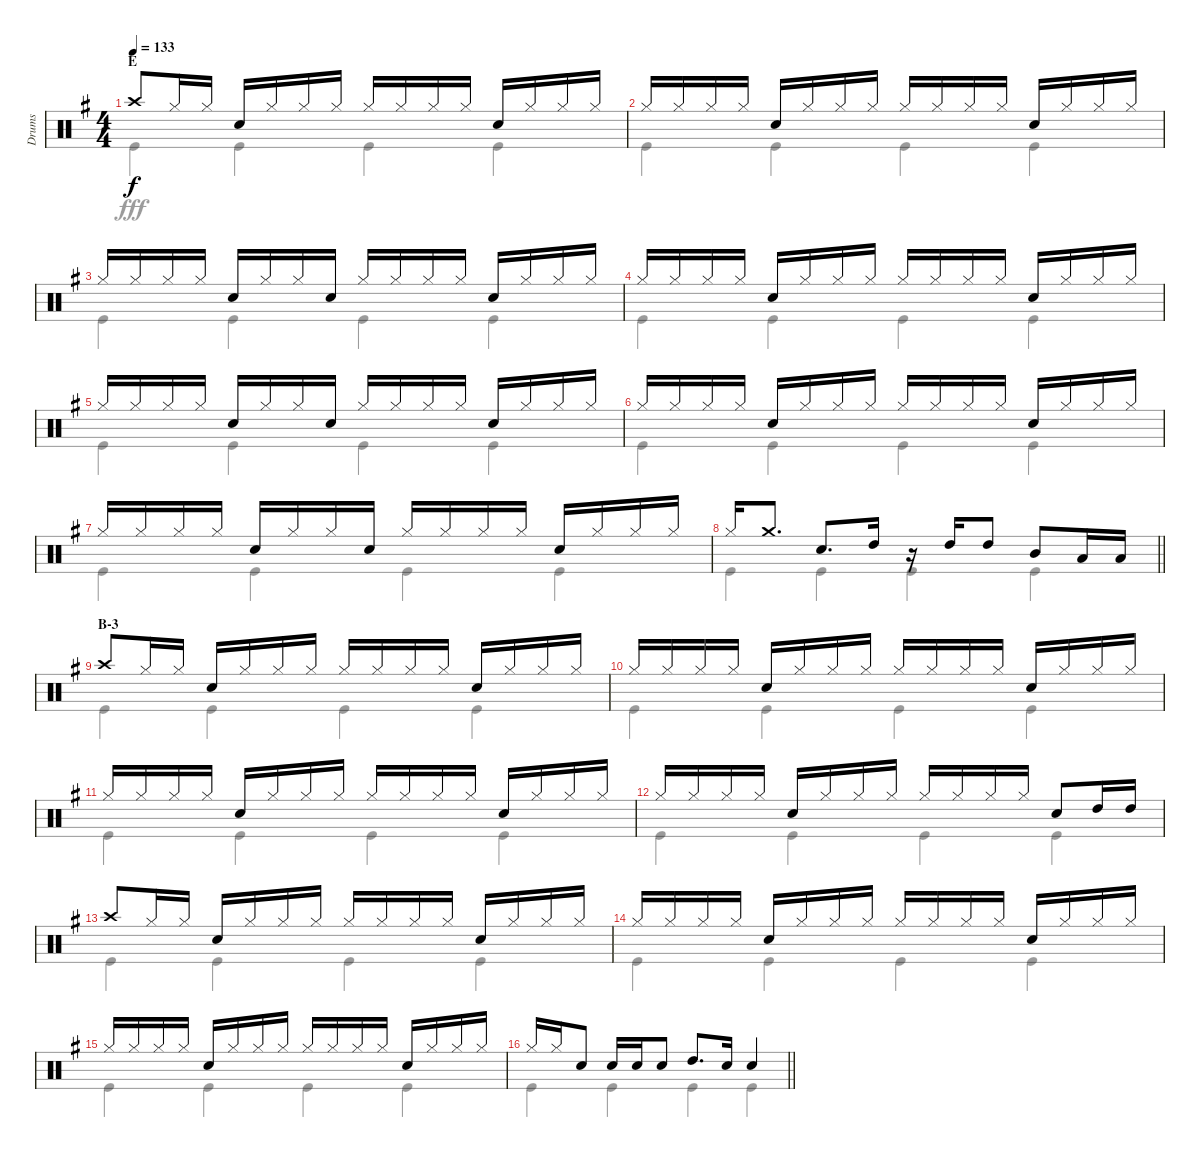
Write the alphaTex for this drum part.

\track ("Drums" "Drums") {instrument percussion}
\staff {score}
\articulation defaults
\voice
\ts (4 4)
\section ("" "E")
\tempo 133
\clef neutral
\ks g "Crash high (hit)".8{dy f} "Hi-Hat (closed)".16 "Hi-Hat (closed)".16 "Snare (hit) 2".16 "Hi-Hat (closed)".16 "Hi-Hat (closed)".16 "Hi-Hat (closed)".16 "Hi-Hat (closed)".16 "Hi-Hat (closed)".16 "Hi-Hat (closed)".16 "Hi-Hat (closed)".16 "Snare (hit) 2".16 "Hi-Hat (closed)".16 "Hi-Hat (closed)".16 "Hi-Hat (closed)".16
|
"Hi-Hat (closed)".16 "Hi-Hat (closed)".16 "Hi-Hat (closed)".16 "Hi-Hat (closed)".16 "Snare (hit) 2".16 "Hi-Hat (closed)".16 "Hi-Hat (closed)".16 "Hi-Hat (closed)".16 "Hi-Hat (closed)".16 "Hi-Hat (closed)".16 "Hi-Hat (closed)".16 "Hi-Hat (closed)".16 "Snare (hit) 2".16 "Hi-Hat (closed)".16 "Hi-Hat (closed)".16 "Hi-Hat (closed)".16 |
"Hi-Hat (closed)".16 "Hi-Hat (closed)".16 "Hi-Hat (closed)".16 "Hi-Hat (closed)".16 "Snare (hit) 2".16 "Hi-Hat (closed)".16 "Hi-Hat (closed)".16 "Snare (hit) 2".16 "Hi-Hat (closed)".16 "Hi-Hat (closed)".16 "Hi-Hat (closed)".16 "Hi-Hat (closed)".16 "Snare (hit) 2".16 "Hi-Hat (closed)".16 "Hi-Hat (closed)".16 "Hi-Hat (closed)".16 |
"Hi-Hat (closed)".16 "Hi-Hat (closed)".16 "Hi-Hat (closed)".16 "Hi-Hat (closed)".16 "Snare (hit) 2".16 "Hi-Hat (closed)".16 "Hi-Hat (closed)".16 "Hi-Hat (closed)".16 "Hi-Hat (closed)".16 "Hi-Hat (closed)".16 "Hi-Hat (closed)".16 "Hi-Hat (closed)".16 "Snare (hit) 2".16 "Hi-Hat (closed)".16 "Hi-Hat (closed)".16 "Hi-Hat (closed)".16 |
"Hi-Hat (closed)".16 "Hi-Hat (closed)".16 "Hi-Hat (closed)".16 "Hi-Hat (closed)".16 "Snare (hit) 2".16 "Hi-Hat (closed)".16 "Hi-Hat (closed)".16 "Snare (hit) 2".16 "Hi-Hat (closed)".16 "Hi-Hat (closed)".16 "Hi-Hat (closed)".16 "Hi-Hat (closed)".16 "Snare (hit) 2".16 "Hi-Hat (closed)".16 "Hi-Hat (closed)".16 "Hi-Hat (closed)".16 |
"Hi-Hat (closed)".16 "Hi-Hat (closed)".16 "Hi-Hat (closed)".16 "Hi-Hat (closed)".16 "Snare (hit) 2".16 "Hi-Hat (closed)".16 "Hi-Hat (closed)".16 "Hi-Hat (closed)".16 "Hi-Hat (closed)".16 "Hi-Hat (closed)".16 "Hi-Hat (closed)".16 "Hi-Hat (closed)".16 "Snare (hit) 2".16 "Hi-Hat (closed)".16 "Hi-Hat (closed)".16 "Hi-Hat (closed)".16 |
"Hi-Hat (closed)".16 "Hi-Hat (closed)".16 "Hi-Hat (closed)".16 "Hi-Hat (closed)".16 "Snare (hit) 2".16 "Hi-Hat (closed)".16 "Hi-Hat (closed)".16 "Snare (hit) 2".16 "Hi-Hat (closed)".16 "Hi-Hat (closed)".16 "Hi-Hat (closed)".16 "Hi-Hat (closed)".16 "Snare (hit) 2".16 "Hi-Hat (closed)".16 "Hi-Hat (closed)".16 "Hi-Hat (closed)".16 |
\barLineRight lightlight "Hi-Hat (closed)".16 "Crash medium (hit)".8{d} "Snare (hit) 2".8{d} "High Tom (hit)".16
r.16 "High Tom (hit)".16 "High Tom (hit)".8 "Mid Tom (hit)".8 "Low Tom (hit)".16 "Low Tom (hit)".16 |
\section ("" "B-3")
"Crash high (hit)".8 "Hi-Hat (closed)".16 "Hi-Hat (closed)".16 "Snare (hit) 2".16 "Hi-Hat (closed)".16 "Hi-Hat (closed)".16 "Hi-Hat (closed)".16 "Hi-Hat (closed)".16 "Hi-Hat (closed)".16 "Hi-Hat (closed)".16 "Hi-Hat (closed)".16 "Snare (hit) 2".16 "Hi-Hat (closed)".16 "Hi-Hat (closed)".16 "Hi-Hat (closed)".16 |
"Hi-Hat (closed)".16 "Hi-Hat (closed)".16 "Hi-Hat (closed)".16 "Hi-Hat (closed)".16 "Snare (hit) 2".16 "Hi-Hat (closed)".16 "Hi-Hat (closed)".16 "Hi-Hat (closed)".16 "Hi-Hat (closed)".16 "Hi-Hat (closed)".16 "Hi-Hat (closed)".16 "Hi-Hat (closed)".16 "Snare (hit) 2".16 "Hi-Hat (closed)".16 "Hi-Hat (closed)".16 "Hi-Hat (closed)".16 |
"Hi-Hat (closed)".16 "Hi-Hat (closed)".16 "Hi-Hat (closed)".16 "Hi-Hat (closed)".16 "Snare (hit) 2".16 "Hi-Hat (closed)".16 "Hi-Hat (closed)".16 "Hi-Hat (closed)".16 "Hi-Hat (closed)".16 "Hi-Hat (closed)".16 "Hi-Hat (closed)".16 "Hi-Hat (closed)".16 "Snare (hit) 2".16 "Hi-Hat (closed)".16 "Hi-Hat (closed)".16 "Hi-Hat (closed)".16 |
"Hi-Hat (closed)".16 "Hi-Hat (closed)".16 "Hi-Hat (closed)".16 "Hi-Hat (closed)".16 "Snare (hit) 2".16 "Hi-Hat (closed)".16 "Hi-Hat (closed)".16 "Hi-Hat (closed)".16 "Hi-Hat (closed)".16 "Hi-Hat (closed)".16 "Hi-Hat (closed)".16 "Hi-Hat (closed)".16 "Snare (hit) 2".8 "High Tom (hit)".16 "High Tom (hit)".16 |
"Crash high (hit)".8 "Hi-Hat (closed)".16 "Hi-Hat (closed)".16 "Snare (hit) 2".16 "Hi-Hat (closed)".16 "Hi-Hat (closed)".16 "Hi-Hat (closed)".16 "Hi-Hat (closed)".16 "Hi-Hat (closed)".16 "Hi-Hat (closed)".16 "Hi-Hat (closed)".16 "Snare (hit) 2".16 "Hi-Hat (closed)".16 "Hi-Hat (closed)".16 "Hi-Hat (closed)".16 |
"Hi-Hat (closed)".16 "Hi-Hat (closed)".16 "Hi-Hat (closed)".16 "Hi-Hat (closed)".16 "Snare (hit) 2".16 "Hi-Hat (closed)".16 "Hi-Hat (closed)".16 "Hi-Hat (closed)".16 "Hi-Hat (closed)".16 "Hi-Hat (closed)".16 "Hi-Hat (closed)".16 "Hi-Hat (closed)".16 "Snare (hit) 2".16 "Hi-Hat (closed)".16 "Hi-Hat (closed)".16 "Hi-Hat (closed)".16 |
"Hi-Hat (closed)".16 "Hi-Hat (closed)".16 "Hi-Hat (closed)".16 "Hi-Hat (closed)".16 "Snare (hit) 2".16 "Hi-Hat (closed)".16 "Hi-Hat (closed)".16 "Hi-Hat (closed)".16 "Hi-Hat (closed)".16 "Hi-Hat (closed)".16 "Hi-Hat (closed)".16 "Hi-Hat (closed)".16 "Snare (hit) 2".16 "Hi-Hat (closed)".16 "Hi-Hat (closed)".16 "Hi-Hat (closed)".16 |
\barLineRight lightlight "Hi-Hat (closed)".16 "Hi-Hat (closed)".16 "Snare (hit) 2".8 "Snare (hit) 2".16 "Snare (hit) 2".16 "Snare (hit) 2".8 "High Tom (hit)".8{d} "Snare (hit) 2".16 "Snare (hit) 2".4
\voice
\clef neutral
\ottava regular
\simile none
\ks g "Kick (hit)".4{dy fff} "Kick (hit)".4 "Kick (hit)".4 "Kick (hit)".4
|
"Kick (hit)".4 "Kick (hit)".4 "Kick (hit)".4 "Kick (hit)".4 |
"Kick (hit)".4 "Kick (hit)".4 "Kick (hit)".4 "Kick (hit)".4 |
"Kick (hit)".4 "Kick (hit)".4 "Kick (hit)".4 "Kick (hit)".4 |
"Kick (hit)".4 "Kick (hit)".4 "Kick (hit)".4 "Kick (hit)".4 |
"Kick (hit)".4 "Kick (hit)".4 "Kick (hit)".4 "Kick (hit)".4 |
"Kick (hit)".4 "Kick (hit)".4 "Kick (hit)".4 "Kick (hit)".4 |
\barLineRight lightlight "Kick (hit)".4 "Kick (hit)".4 "Kick (hit)".4 "Kick (hit)".4
|
"Kick (hit)".4 "Kick (hit)".4 "Kick (hit)".4 "Kick (hit)".4 |
"Kick (hit)".4 "Kick (hit)".4 "Kick (hit)".4 "Kick (hit)".4 |
"Kick (hit)".4 "Kick (hit)".4 "Kick (hit)".4 "Kick (hit)".4 |
"Kick (hit)".4 "Kick (hit)".4 "Kick (hit)".4 "Kick (hit)".4 |
"Kick (hit)".4 "Kick (hit)".4 "Kick (hit)".4 "Kick (hit)".4 |
"Kick (hit)".4 "Kick (hit)".4 "Kick (hit)".4 "Kick (hit)".4 |
"Kick (hit)".4 "Kick (hit)".4 "Kick (hit)".4 "Kick (hit)".4 |
\barLineRight lightlight "Kick (hit)".4 "Kick (hit)".4 "Kick (hit)".4 "Kick (hit)".4
